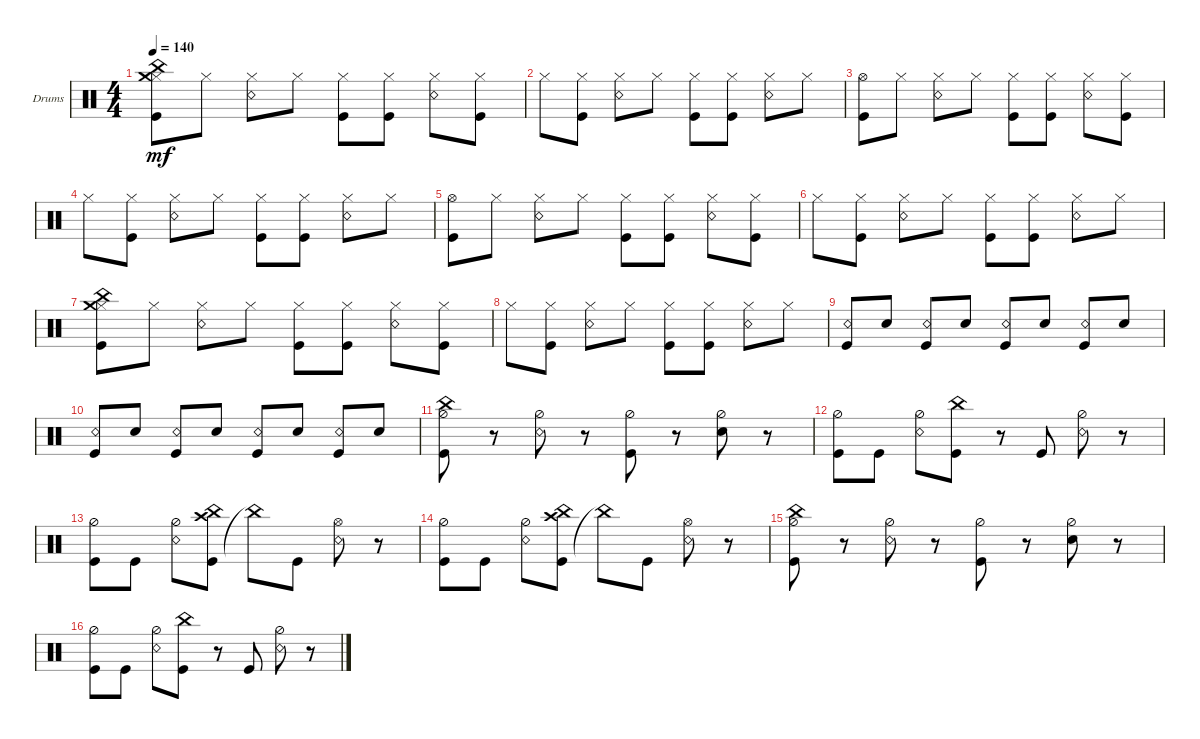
\defaultSystemsLayout 4
\bracketExtendMode groupsimilarinstruments
\firstSystemTrackNameOrientation horizontal
\otherSystemsTrackNameOrientation horizontal
\track ("Drumkit" "Drums") {instrument percussion}
\staff {score}
\articulation defaults
\ts (4 4)
\tempo 140
\clef neutral
\ks c
("Kick (hit)" "Hi-Hat (closed)" "China (hit)" "Crash medium (hit)").8{dy mf} "Hi-Hat (closed)".8 ("Hi-Hat (closed)" "Snare (rim shot)").8 "Hi-Hat (closed)".8 ("Hi-Hat (closed)" "Kick (hit)").8 ("Hi-Hat (closed)" "Kick (hit)").8 ("Hi-Hat (closed)" "Snare (rim shot)").8 ("Hi-Hat (closed)" "Kick (hit)").8 |
"Hi-Hat (closed)".8 ("Hi-Hat (closed)" "Kick (hit)").8 ("Hi-Hat (closed)" "Snare (rim shot)").8 "Hi-Hat (closed)".8 ("Hi-Hat (closed)" "Kick (hit)").8 ("Hi-Hat (closed)" "Kick (hit)").8 ("Hi-Hat (closed)" "Snare (rim shot)").8 "Hi-Hat (closed)".8 |
("Kick (hit)" "Hi-Hat (open)").8 "Hi-Hat (closed)".8 ("Hi-Hat (closed)" "Snare (rim shot)").8 "Hi-Hat (closed)".8 ("Hi-Hat (closed)" "Kick (hit)").8 ("Hi-Hat (closed)" "Kick (hit)").8 ("Hi-Hat (closed)" "Snare (rim shot)").8 ("Hi-Hat (closed)" "Kick (hit)").8 |
"Hi-Hat (closed)".8 ("Hi-Hat (closed)" "Kick (hit)").8 ("Hi-Hat (closed)" "Snare (rim shot)").8 "Hi-Hat (closed)".8 ("Hi-Hat (closed)" "Kick (hit)").8 ("Hi-Hat (closed)" "Kick (hit)").8 ("Hi-Hat (closed)" "Snare (rim shot)").8 "Hi-Hat (closed)".8 |
("Kick (hit)" "Hi-Hat (open)").8 "Hi-Hat (closed)".8 ("Hi-Hat (closed)" "Snare (rim shot)").8 "Hi-Hat (closed)".8 ("Hi-Hat (closed)" "Kick (hit)").8 ("Hi-Hat (closed)" "Kick (hit)").8 ("Hi-Hat (closed)" "Snare (rim shot)").8 ("Hi-Hat (closed)" "Kick (hit)").8 |
"Hi-Hat (closed)".8 ("Hi-Hat (closed)" "Kick (hit)").8 ("Hi-Hat (closed)" "Snare (rim shot)").8 "Hi-Hat (closed)".8 ("Hi-Hat (closed)" "Kick (hit)").8 ("Hi-Hat (closed)" "Kick (hit)").8 ("Hi-Hat (closed)" "Snare (rim shot)").8 "Hi-Hat (closed)".8 |
("Kick (hit)" "Hi-Hat (closed)" "China (hit)" "Crash medium (hit)").8 "Hi-Hat (closed)".8 ("Hi-Hat (closed)" "Snare (rim shot)").8 "Hi-Hat (closed)".8 ("Hi-Hat (closed)" "Kick (hit)").8 ("Hi-Hat (closed)" "Kick (hit)").8 ("Hi-Hat (closed)" "Snare (rim shot)").8 ("Hi-Hat (closed)" "Kick (hit)").8 |
"Hi-Hat (closed)".8 ("Hi-Hat (closed)" "Kick (hit)").8 ("Hi-Hat (closed)" "Snare (rim shot)").8 "Hi-Hat (closed)".8 ("Hi-Hat (closed)" "Kick (hit)").8 ("Hi-Hat (closed)" "Kick (hit)").8 ("Hi-Hat (closed)" "Snare (rim shot)").8 "Hi-Hat (closed)".8 |
("Snare (rim shot)" "Kick (hit)").8 "Snare (hit) 2".8 ("Snare (rim shot)" "Kick (hit)").8 "Snare (hit) 2".8 ("Snare (rim shot)" "Kick (hit)").8 "Snare (hit) 2".8 ("Snare (rim shot)" "Kick (hit)").8 "Snare (hit) 2".8 |
("Snare (rim shot)" "Kick (hit)").8 "Snare (hit) 2".8 ("Snare (rim shot)" "Kick (hit)").8 "Snare (hit) 2".8 ("Snare (rim shot)" "Kick (hit)").8 "Snare (hit) 2".8 ("Snare (rim shot)" "Kick (hit)").8 "Snare (hit) 2".8 |
("Kick (hit)" "Hi-Hat (half)" "China (hit)").8 r.8 ("Snare (rim shot)" "Hi-Hat (half)").8 r.8 ("Kick (hit)" "Hi-Hat (half)").8 r.8 ("Snare (hit) 2" "Hi-Hat (half)").8 r.8 |
("Kick (hit)" "Hi-Hat (half)").8 "Kick (hit)".8 ("Snare (rim shot)" "Hi-Hat (half)").8 ("Kick (hit)" "China (hit)").8 r.8 "Kick (hit)".8 ("Snare (rim shot)" "Hi-Hat (half)").8 r.8 |
("Kick (hit)" "Hi-Hat (half)").8 "Kick (hit)".8 ("Snare (rim shot)" "Hi-Hat (half)").8 ("Kick (hit)" "China (hit)" "Crash high (hit)").8 "China (hit)"{t}.8 "Kick (hit)".8 ("Snare (rim shot)" "Hi-Hat (open)").8 r.8 |
("Kick (hit)" "Hi-Hat (half)").8 "Kick (hit)".8 ("Snare (rim shot)" "Hi-Hat (half)").8 ("Kick (hit)" "China (hit)" "Crash high (hit)").8 "China (hit)"{t}.8 "Kick (hit)".8 ("Snare (rim shot)" "Hi-Hat (open)").8 r.8 |
("Kick (hit)" "Hi-Hat (half)" "China (hit)").8 r.8 ("Snare (rim shot)" "Hi-Hat (half)").8 r.8 ("Kick (hit)" "Hi-Hat (half)").8 r.8 ("Snare (hit) 2" "Hi-Hat (half)").8 r.8 |
("Kick (hit)" "Hi-Hat (half)").8 "Kick (hit)".8 ("Snare (rim shot)" "Hi-Hat (half)").8 ("Kick (hit)" "China (hit)").8 r.8 "Kick (hit)".8 ("Snare (rim shot)" "Hi-Hat (half)").8 r.8
